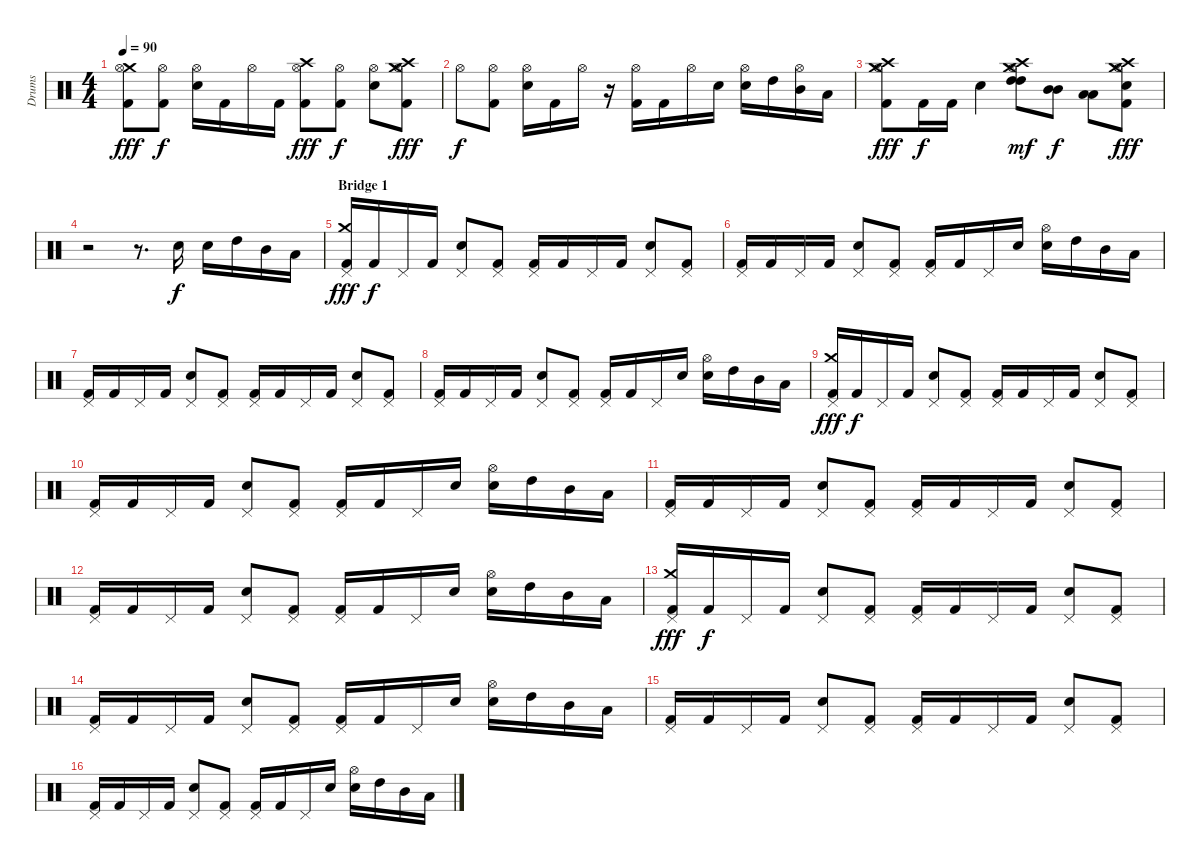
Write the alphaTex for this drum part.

\track ("Drums" "Drums") {instrument percussion}
\staff {score}
\articulation defaults
\ts (4 4)
\tempo 90
\clef neutral
\ks c
("Kick (hit) 2" "Crash medium (hit)" "Hi-Hat (open)").8{dy fff} ("Kick (hit) 2" "Hi-Hat (open)").8{dy f} ("Snare (hit) 2" "Hi-Hat (open)").16 "Kick (hit) 2".16 "Hi-Hat (open)".16 "Kick (hit) 2".16 ("Kick (hit) 2" "Crash high (hit)" "Hi-Hat (open)").8{dy fff} ("Kick (hit) 2" "Hi-Hat (open)").8{dy f} ("Snare (hit) 2" "Hi-Hat (open)").8 ("Kick (hit) 2" "Crash medium (hit)" "Crash high (hit)" "Hi-Hat (open)").8{dy fff} |
"Hi-Hat (open)".8{dy f} ("Kick (hit) 2" "Hi-Hat (open)").8 ("Snare (hit) 2" "Hi-Hat (open)").16 "Kick (hit) 2".16 "Hi-Hat (open)".16 r.16 ("Kick (hit) 2" "Hi-Hat (open)").16 "Kick (hit) 2".16 "Hi-Hat (open)".16 "Snare (hit) 2".16 ("Snare (hit) 2" "Hi-Hat (open)").16 "High Tom (hit)".16 ("Mid Tom (hit)" "Hi-Hat (open)").16 "Low Tom (hit)".16 |
("Kick (hit) 2" "Crash medium (hit)" "Crash high (hit)" "Hi-Hat (open)").8{dy fff} "Kick (hit) 2".16{dy f} "Kick (hit) 2".16 "Snare (hit) 2".4 ("High Tom (hit)" "High Tom (hit)" "Crash medium (hit)" "Crash high (hit)" "Hi-Hat (open)").8{bd 240 dy mf} ("Mid Tom (hit)" "Mid Tom (hit)").8{bd 240 dy f} ("Low Tom (hit)" "Low Tom (hit)").8{bd 240} ("Snare (hit) 2" "Kick (hit) 2" "Crash medium (hit)" "Crash high (hit)" "Hi-Hat (open)").8{dy fff} |
r.2 r.8{d} "Snare (hit) 2".16{dy f} "Snare (hit) 2".16 "High Tom (hit)".16 "Mid Tom (hit)".16 "Low Tom (hit)".16 |
\section ("" "Bridge 1")
("Kick (hit) 2" "Crash medium (hit)" "Pedal Hi-Hat (hit)").16{dy fff} "Kick (hit) 2".16{dy f} "Pedal Hi-Hat (hit)".16 "Kick (hit) 2".16 ("Snare (hit) 2" "Pedal Hi-Hat (hit)").8 ("Kick (hit) 2" "Pedal Hi-Hat (hit)").8 ("Kick (hit) 2" "Pedal Hi-Hat (hit)").16 "Kick (hit) 2".16 "Pedal Hi-Hat (hit)".16 "Kick (hit) 2".16 ("Snare (hit) 2" "Pedal Hi-Hat (hit)").8 ("Kick (hit) 2" "Pedal Hi-Hat (hit)").8 |
("Kick (hit) 2" "Pedal Hi-Hat (hit)").16 "Kick (hit) 2".16 "Pedal Hi-Hat (hit)".16 "Kick (hit) 2".16 ("Snare (hit) 2" "Pedal Hi-Hat (hit)").8 ("Kick (hit) 2" "Pedal Hi-Hat (hit)").8 ("Kick (hit) 2" "Pedal Hi-Hat (hit)").16 "Kick (hit) 2".16 "Pedal Hi-Hat (hit)".16 "Snare (hit) 2".16 ("Snare (hit) 2" "Hi-Hat (open)").16 "High Tom (hit)".16 "Mid Tom (hit)".16 "Low Tom (hit)".16 |
("Kick (hit) 2" "Pedal Hi-Hat (hit)").16 "Kick (hit) 2".16 "Pedal Hi-Hat (hit)".16 "Kick (hit) 2".16 ("Snare (hit) 2" "Pedal Hi-Hat (hit)").8 ("Kick (hit) 2" "Pedal Hi-Hat (hit)").8 ("Kick (hit) 2" "Pedal Hi-Hat (hit)").16 "Kick (hit) 2".16 "Pedal Hi-Hat (hit)".16 "Kick (hit) 2".16 ("Snare (hit) 2" "Pedal Hi-Hat (hit)").8 ("Kick (hit) 2" "Pedal Hi-Hat (hit)").8 |
("Kick (hit) 2" "Pedal Hi-Hat (hit)").16 "Kick (hit) 2".16 "Pedal Hi-Hat (hit)".16 "Kick (hit) 2".16 ("Snare (hit) 2" "Pedal Hi-Hat (hit)").8 ("Kick (hit) 2" "Pedal Hi-Hat (hit)").8 ("Kick (hit) 2" "Pedal Hi-Hat (hit)").16 "Kick (hit) 2".16 "Pedal Hi-Hat (hit)".16 "Snare (hit) 2".16 ("Snare (hit) 2" "Hi-Hat (open)").16 "High Tom (hit)".16 "Mid Tom (hit)".16 "Low Tom (hit)".16 |
("Kick (hit) 2" "Crash medium (hit)" "Pedal Hi-Hat (hit)").16{dy fff} "Kick (hit) 2".16{dy f} "Pedal Hi-Hat (hit)".16 "Kick (hit) 2".16 ("Snare (hit) 2" "Pedal Hi-Hat (hit)").8 ("Kick (hit) 2" "Pedal Hi-Hat (hit)").8 ("Kick (hit) 2" "Pedal Hi-Hat (hit)").16 "Kick (hit) 2".16 "Pedal Hi-Hat (hit)".16 "Kick (hit) 2".16 ("Snare (hit) 2" "Pedal Hi-Hat (hit)").8 ("Kick (hit) 2" "Pedal Hi-Hat (hit)").8 |
("Kick (hit) 2" "Pedal Hi-Hat (hit)").16 "Kick (hit) 2".16 "Pedal Hi-Hat (hit)".16 "Kick (hit) 2".16 ("Snare (hit) 2" "Pedal Hi-Hat (hit)").8 ("Kick (hit) 2" "Pedal Hi-Hat (hit)").8 ("Kick (hit) 2" "Pedal Hi-Hat (hit)").16 "Kick (hit) 2".16 "Pedal Hi-Hat (hit)".16 "Snare (hit) 2".16 ("Snare (hit) 2" "Hi-Hat (open)").16 "High Tom (hit)".16 "Mid Tom (hit)".16 "Low Tom (hit)".16 |
("Kick (hit) 2" "Pedal Hi-Hat (hit)").16 "Kick (hit) 2".16 "Pedal Hi-Hat (hit)".16 "Kick (hit) 2".16 ("Snare (hit) 2" "Pedal Hi-Hat (hit)").8 ("Kick (hit) 2" "Pedal Hi-Hat (hit)").8 ("Kick (hit) 2" "Pedal Hi-Hat (hit)").16 "Kick (hit) 2".16 "Pedal Hi-Hat (hit)".16 "Kick (hit) 2".16 ("Snare (hit) 2" "Pedal Hi-Hat (hit)").8 ("Kick (hit) 2" "Pedal Hi-Hat (hit)").8 |
("Kick (hit) 2" "Pedal Hi-Hat (hit)").16 "Kick (hit) 2".16 "Pedal Hi-Hat (hit)".16 "Kick (hit) 2".16 ("Snare (hit) 2" "Pedal Hi-Hat (hit)").8 ("Kick (hit) 2" "Pedal Hi-Hat (hit)").8 ("Kick (hit) 2" "Pedal Hi-Hat (hit)").16 "Kick (hit) 2".16 "Pedal Hi-Hat (hit)".16 "Snare (hit) 2".16 ("Snare (hit) 2" "Hi-Hat (open)").16 "High Tom (hit)".16 "Mid Tom (hit)".16 "Low Tom (hit)".16 |
("Kick (hit) 2" "Crash medium (hit)" "Pedal Hi-Hat (hit)").16{dy fff} "Kick (hit) 2".16{dy f} "Pedal Hi-Hat (hit)".16 "Kick (hit) 2".16 ("Snare (hit) 2" "Pedal Hi-Hat (hit)").8 ("Kick (hit) 2" "Pedal Hi-Hat (hit)").8 ("Kick (hit) 2" "Pedal Hi-Hat (hit)").16 "Kick (hit) 2".16 "Pedal Hi-Hat (hit)".16 "Kick (hit) 2".16 ("Snare (hit) 2" "Pedal Hi-Hat (hit)").8 ("Kick (hit) 2" "Pedal Hi-Hat (hit)").8 |
("Kick (hit) 2" "Pedal Hi-Hat (hit)").16 "Kick (hit) 2".16 "Pedal Hi-Hat (hit)".16 "Kick (hit) 2".16 ("Snare (hit) 2" "Pedal Hi-Hat (hit)").8 ("Kick (hit) 2" "Pedal Hi-Hat (hit)").8 ("Kick (hit) 2" "Pedal Hi-Hat (hit)").16 "Kick (hit) 2".16 "Pedal Hi-Hat (hit)".16 "Snare (hit) 2".16 ("Snare (hit) 2" "Hi-Hat (open)").16 "High Tom (hit)".16 "Mid Tom (hit)".16 "Low Tom (hit)".16 |
("Kick (hit) 2" "Pedal Hi-Hat (hit)").16 "Kick (hit) 2".16 "Pedal Hi-Hat (hit)".16 "Kick (hit) 2".16 ("Snare (hit) 2" "Pedal Hi-Hat (hit)").8 ("Kick (hit) 2" "Pedal Hi-Hat (hit)").8 ("Kick (hit) 2" "Pedal Hi-Hat (hit)").16 "Kick (hit) 2".16 "Pedal Hi-Hat (hit)".16 "Kick (hit) 2".16 ("Snare (hit) 2" "Pedal Hi-Hat (hit)").8 ("Kick (hit) 2" "Pedal Hi-Hat (hit)").8 |
("Kick (hit) 2" "Pedal Hi-Hat (hit)").16 "Kick (hit) 2".16 "Pedal Hi-Hat (hit)".16 "Kick (hit) 2".16 ("Snare (hit) 2" "Pedal Hi-Hat (hit)").8 ("Kick (hit) 2" "Pedal Hi-Hat (hit)").8 ("Kick (hit) 2" "Pedal Hi-Hat (hit)").16 "Kick (hit) 2".16 "Pedal Hi-Hat (hit)".16 "Snare (hit) 2".16 ("Snare (hit) 2" "Hi-Hat (open)").16 "High Tom (hit)".16 "Mid Tom (hit)".16 "Low Tom (hit)".16
